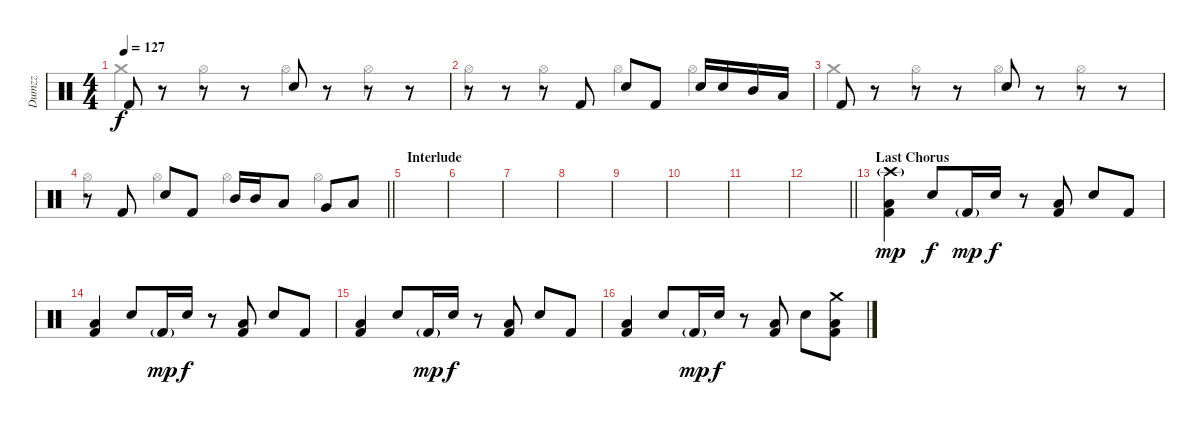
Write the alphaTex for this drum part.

\track ("Dumzz" "Dumzz") {instrument percussion}
\staff {score}
\articulation defaults
\voice
\ts (4 4)
\tempo 127
\clef neutral
\ks c "Kick (hit) 2".8{dy f}
r.8 r.8 r.8 "Snare (hit) 2".8 r.8 r.8 r.8 |
r.8 r.8 r.8 "Kick (hit) 2".8 "Snare (hit) 2".8 "Kick (hit) 2".8 "Snare (hit) 2".16 "Snare (hit) 2".16 "Mid Tom (hit)".16 "Low Tom (hit)".16 |
"Kick (hit) 2".8 r.8 r.8 r.8 "Snare (hit) 2".8 r.8 r.8 r.8 |
\barLineRight lightlight
r.8 "Kick (hit) 2".8 "Snare (hit) 2".8 "Kick (hit) 2".8 "Mid Tom (hit)".16 "Mid Tom (hit)".16 "Low Tom (hit)".8 "Very Low Tom (hit)".8 "Low Floor Tom (hit)".8 |
\section ("" "Interlude")
|
|
|
|
|
|
|
\barLineRight lightlight
|
\section ("" "Last Chorus")
("Crash high (hit)"{g} "Low Tom (hit)" "Kick (hit) 2").4{dy mp} "Snare (hit) 2".8{dy f} "Kick (hit) 2"{g}.16{dy mp} "Snare (hit) 2".16{dy f} r.8 ("Low Tom (hit)" "Kick (hit) 2").8 "Snare (hit) 2".8 "Kick (hit) 2".8 |
("Low Tom (hit)" "Kick (hit) 2").4 "Snare (hit) 2".8 "Kick (hit) 2"{g}.16{dy mp} "Snare (hit) 2".16{dy f} r.8 ("Low Tom (hit)" "Kick (hit) 2").8 "Snare (hit) 2".8 "Kick (hit) 2".8 |
("Low Tom (hit)" "Kick (hit) 2").4 "Snare (hit) 2".8 "Kick (hit) 2"{g}.16{dy mp} "Snare (hit) 2".16{dy f} r.8 ("Low Tom (hit)" "Kick (hit) 2").8 "Snare (hit) 2".8 "Kick (hit) 2".8 |
("Low Tom (hit)" "Kick (hit) 2").4 "Snare (hit) 2".8 "Kick (hit) 2"{g}.16{dy mp} "Snare (hit) 2".16{dy f} r.8 ("Low Tom (hit)" "Kick (hit) 2").8 "Snare (hit) 2".8 ("Crash medium (hit)" "Low Tom (hit)" "Kick (hit) 2").8
\voice
\clef neutral
\ottava regular
\simile none
\ks c "Crash medium (hit)".4{dy f} "Hi-Hat (open)".4 "Hi-Hat (open)".4 "Hi-Hat (open)".4
|
"Hi-Hat (open)".4 "Hi-Hat (open)".4 "Hi-Hat (open)".4 "Hi-Hat (open)".4 |
"Crash medium (hit)".4 "Hi-Hat (open)".4 "Hi-Hat (open)".4 "Hi-Hat (open)".4 |
\barLineRight lightlight "Hi-Hat (open)".4 "Hi-Hat (open)".4 "Hi-Hat (open)".4 "Hi-Hat (open)".4
|
|
|
|
|
|
|
|
\barLineRight lightlight
|
|
|
|
